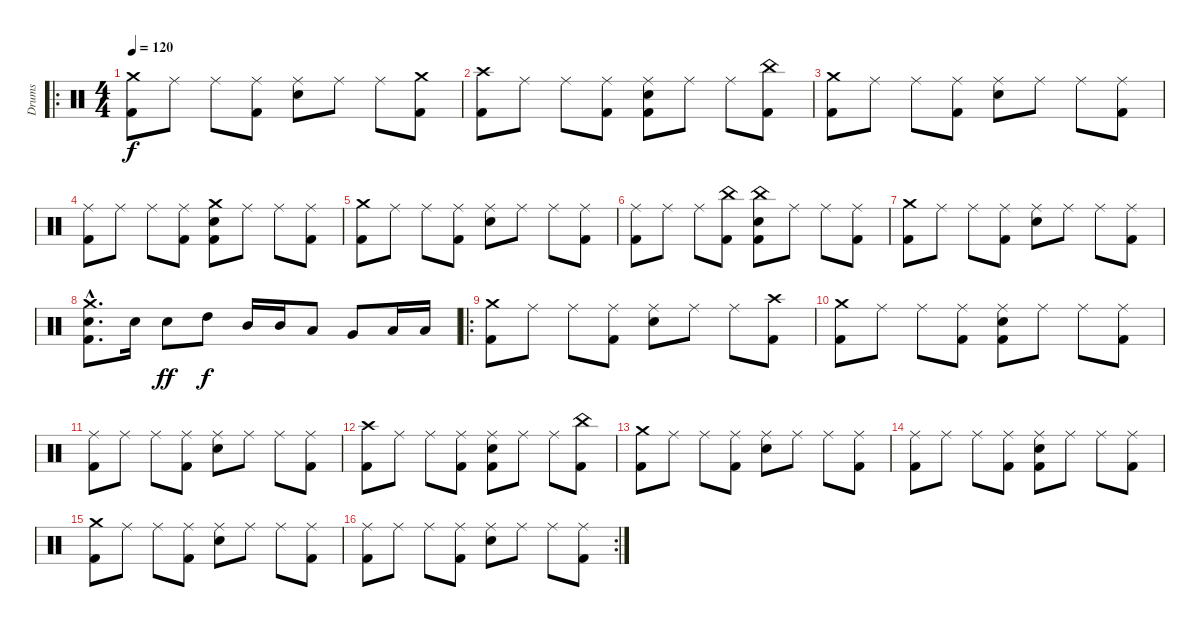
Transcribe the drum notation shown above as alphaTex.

\track ("Drums " "Drums ") {instrument percussion}
\staff {score}
\articulation defaults
\ro
\ts (4 4)
\tempo 120
\clef neutral
\ks c
("Crash medium (hit)" "Kick (hit) 2").8{dy f} "Ride (middle)".8 "Ride (middle)".8 ("Ride (middle)" "Kick (hit) 2").8 ("Ride (middle)" "Snare (hit) 2").8 "Ride (middle)".8 "Ride (middle)".8 ("Crash medium (hit)" "Kick (hit) 2").8 |
("Crash high (hit)" "Kick (hit) 2").8 "Ride (middle)".8 "Ride (middle)".8 ("Ride (middle)" "Kick (hit) 2").8 ("Ride (middle)" "Snare (hit) 2" "Kick (hit) 2").8 "Ride (middle)".8 "Ride (middle)".8 ("China (hit)" "Kick (hit) 2").8 |
("Crash medium (hit)" "Kick (hit) 2").8 "Ride (middle)".8 "Ride (middle)".8 ("Ride (middle)" "Kick (hit) 2").8 ("Ride (middle)" "Snare (hit) 2").8 "Ride (middle)".8 "Ride (middle)".8 ("Ride (middle)" "Kick (hit) 2").8 |
("Ride (middle)" "Kick (hit) 2").8 "Ride (middle)".8 "Ride (middle)".8 ("Ride (middle)" "Kick (hit) 2").8 ("Crash medium (hit)" "Snare (hit) 2" "Kick (hit) 2").8 "Ride (middle)".8 "Ride (middle)".8 ("Ride (middle)" "Kick (hit) 2").8 |
("Crash medium (hit)" "Kick (hit) 2").8 "Ride (middle)".8 "Ride (middle)".8 ("Ride (middle)" "Kick (hit) 2").8 ("Ride (middle)" "Snare (hit) 2").8 "Ride (middle)".8 "Ride (middle)".8 ("Ride (middle)" "Kick (hit) 2").8 |
("Ride (middle)" "Kick (hit) 2").8 "Ride (middle)".8 "Ride (middle)".8 ("China (hit)" "Kick (hit) 2").8 ("China (hit)" "Snare (hit) 2" "Kick (hit) 2").8 "Ride (middle)".8 "Ride (middle)".8 ("Ride (middle)" "Kick (hit) 2").8 |
("Crash medium (hit)" "Kick (hit) 2").8 "Ride (middle)".8 "Ride (middle)".8 ("Ride (middle)" "Kick (hit) 2").8 ("Ride (middle)" "Snare (hit) 2").8 "Ride (middle)".8 "Ride (middle)".8 ("Ride (middle)" "Kick (hit) 2").8 |
("Crash medium (hit)"{hac} "Snare (hit) 2"{hac} "Kick (hit) 2"{hac}).8{d} "Snare (hit) 2".16 "Snare (hit) 2".8{dy ff} "High Tom (hit)".8{dy f} "Mid Tom (hit)".16 "Mid Tom (hit)".16 "Low Tom (hit)".8 "Very Low Tom (hit)".8 "Low Floor Tom (hit)".16 "Low Floor Tom (hit)".16 |
\ro
("Crash medium (hit)" "Kick (hit) 2").8 "Ride (middle)".8 "Ride (middle)".8 ("Ride (middle)" "Kick (hit) 2").8 ("Ride (middle)" "Snare (hit) 2").8 "Ride (middle)".8 "Ride (middle)".8 ("Crash high (hit)" "Kick (hit) 2").8 |
("Crash medium (hit)" "Kick (hit) 2").8 "Ride (middle)".8 "Ride (middle)".8 ("Ride (middle)" "Kick (hit) 2").8 ("Ride (middle)" "Snare (hit) 2" "Kick (hit) 2").8 "Ride (middle)".8 "Ride (middle)".8 ("Ride (middle)" "Kick (hit) 2").8 |
("Ride (middle)" "Kick (hit) 2").8 "Ride (middle)".8 "Ride (middle)".8 ("Ride (middle)" "Kick (hit) 2").8 ("Ride (middle)" "Snare (hit) 2").8 "Ride (middle)".8 "Ride (middle)".8 ("Ride (middle)" "Kick (hit) 2").8 |
("Crash high (hit)" "Kick (hit) 2").8 "Ride (middle)".8 "Ride (middle)".8 ("Ride (middle)" "Kick (hit) 2").8 ("Ride (middle)" "Snare (hit) 2" "Kick (hit) 2").8 "Ride (middle)".8 "Ride (middle)".8 ("China (hit)" "Kick (hit) 2").8 |
("Crash medium (hit)" "Kick (hit) 2").8 "Ride (middle)".8 "Ride (middle)".8 ("Ride (middle)" "Kick (hit) 2").8 ("Ride (middle)" "Snare (hit) 2").8 "Ride (middle)".8 "Ride (middle)".8 ("Ride (middle)" "Kick (hit) 2").8 |
("Ride (middle)" "Kick (hit) 2").8 "Ride (middle)".8 "Ride (middle)".8 ("Ride (middle)" "Kick (hit) 2").8 ("Ride (middle)" "Snare (hit) 2" "Kick (hit) 2").8 "Ride (middle)".8 "Ride (middle)".8 ("Ride (middle)" "Kick (hit) 2").8 |
("Crash medium (hit)" "Kick (hit) 2").8 "Ride (middle)".8 "Ride (middle)".8 ("Ride (middle)" "Kick (hit) 2").8 ("Ride (middle)" "Snare (hit) 2").8 "Ride (middle)".8 "Ride (middle)".8 ("Ride (middle)" "Kick (hit) 2").8 |
\rc 2
("Ride (middle)" "Kick (hit) 2").8 "Ride (middle)".8 "Ride (middle)".8 ("Ride (middle)" "Kick (hit) 2").8 ("Ride (middle)" "Snare (hit) 2").8 "Ride (middle)".8 "Ride (middle)".8 ("Ride (middle)" "Kick (hit) 2").8
